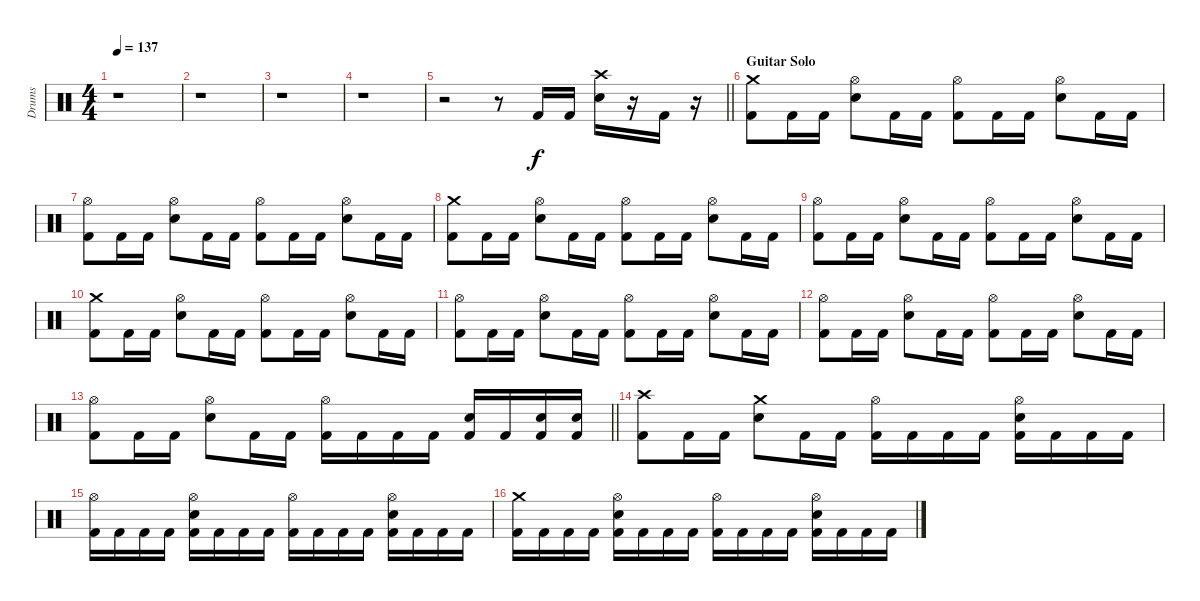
\track ("Drums" "Drums") {instrument percussion}
\staff {score}
\articulation defaults
\ts (4 4)
\tempo 137
\clef neutral
\ks c
r.1{dy f} |
r.1 |
r.1 |
r.1 |
\barLineRight lightlight
r.2 r.8 "Kick (hit) 2".16 "Kick (hit) 2".16 ("Crash high (hit)" "Electric Snare (hit)").16 r.16 "Kick (hit) 2".16 r.16 |
\section ("" "Guitar Solo")
("Crash medium (hit)" "Kick (hit) 2").8 "Kick (hit) 2".16 "Kick (hit) 2".16 ("Hi-Hat (open)" "Electric Snare (hit)").8 "Kick (hit) 2".16 "Kick (hit) 2".16 ("Hi-Hat (open)" "Kick (hit) 2").8 "Kick (hit) 2".16 "Kick (hit) 2".16 ("Hi-Hat (open)" "Electric Snare (hit)").8 "Kick (hit) 2".16 "Kick (hit) 2".16 |
("Hi-Hat (open)" "Kick (hit) 2").8 "Kick (hit) 2".16 "Kick (hit) 2".16 ("Hi-Hat (open)" "Electric Snare (hit)").8 "Kick (hit) 2".16 "Kick (hit) 2".16 ("Hi-Hat (open)" "Kick (hit) 2").8 "Kick (hit) 2".16 "Kick (hit) 2".16 ("Hi-Hat (open)" "Electric Snare (hit)").8 "Kick (hit) 2".16 "Kick (hit) 2".16 |
("Crash medium (hit)" "Kick (hit) 2").8 "Kick (hit) 2".16 "Kick (hit) 2".16 ("Hi-Hat (open)" "Electric Snare (hit)").8 "Kick (hit) 2".16 "Kick (hit) 2".16 ("Hi-Hat (open)" "Kick (hit) 2").8 "Kick (hit) 2".16 "Kick (hit) 2".16 ("Hi-Hat (open)" "Electric Snare (hit)").8 "Kick (hit) 2".16 "Kick (hit) 2".16 |
("Hi-Hat (open)" "Kick (hit) 2").8 "Kick (hit) 2".16 "Kick (hit) 2".16 ("Hi-Hat (open)" "Electric Snare (hit)").8 "Kick (hit) 2".16 "Kick (hit) 2".16 ("Hi-Hat (open)" "Kick (hit) 2").8 "Kick (hit) 2".16 "Kick (hit) 2".16 ("Hi-Hat (open)" "Electric Snare (hit)").8 "Kick (hit) 2".16 "Kick (hit) 2".16 |
("Crash medium (hit)" "Kick (hit) 2").8 "Kick (hit) 2".16 "Kick (hit) 2".16 ("Hi-Hat (open)" "Electric Snare (hit)").8 "Kick (hit) 2".16 "Kick (hit) 2".16 ("Hi-Hat (open)" "Kick (hit) 2").8 "Kick (hit) 2".16 "Kick (hit) 2".16 ("Hi-Hat (open)" "Electric Snare (hit)").8 "Kick (hit) 2".16 "Kick (hit) 2".16 |
("Hi-Hat (open)" "Kick (hit) 2").8 "Kick (hit) 2".16 "Kick (hit) 2".16 ("Hi-Hat (open)" "Electric Snare (hit)").8 "Kick (hit) 2".16 "Kick (hit) 2".16 ("Hi-Hat (open)" "Kick (hit) 2").8 "Kick (hit) 2".16 "Kick (hit) 2".16 ("Hi-Hat (open)" "Electric Snare (hit)").8 "Kick (hit) 2".16 "Kick (hit) 2".16 |
("Hi-Hat (open)" "Kick (hit) 2").8 "Kick (hit) 2".16 "Kick (hit) 2".16 ("Hi-Hat (open)" "Electric Snare (hit)").8 "Kick (hit) 2".16 "Kick (hit) 2".16 ("Hi-Hat (open)" "Kick (hit) 2").8 "Kick (hit) 2".16 "Kick (hit) 2".16 ("Hi-Hat (open)" "Electric Snare (hit)").8 "Kick (hit) 2".16 "Kick (hit) 2".16 |
\barLineRight lightlight
("Hi-Hat (open)" "Kick (hit) 2").8 "Kick (hit) 2".16 "Kick (hit) 2".16 ("Hi-Hat (open)" "Electric Snare (hit)").8 "Kick (hit) 2".16 "Kick (hit) 2".16 ("Hi-Hat (open)" "Kick (hit) 2").16 "Kick (hit) 2".16 "Kick (hit) 2".16 "Kick (hit) 2".16 ("Electric Snare (hit)" "Kick (hit) 2").16 "Kick (hit) 2".16 ("Electric Snare (hit)" "Kick (hit) 2").16 ("Electric Snare (hit)" "Kick (hit) 2").16 |
\section ("" "")
("Crash high (hit)" "Kick (hit) 2").8 "Kick (hit) 2".16 "Kick (hit) 2".16 ("Crash medium (hit)" "Electric Snare (hit)").8 "Kick (hit) 2".16 "Kick (hit) 2".16 ("Hi-Hat (open)" "Kick (hit) 2").16 "Kick (hit) 2".16 "Kick (hit) 2".16 "Kick (hit) 2".16 ("Hi-Hat (open)" "Electric Snare (hit)" "Kick (hit) 2").16 "Kick (hit) 2".16 "Kick (hit) 2".16 "Kick (hit) 2".16 |
("Hi-Hat (open)" "Kick (hit) 2").16 "Kick (hit) 2".16 "Kick (hit) 2".16 "Kick (hit) 2".16 ("Hi-Hat (open)" "Electric Snare (hit)" "Kick (hit) 2").16 "Kick (hit) 2".16 "Kick (hit) 2".16 "Kick (hit) 2".16 ("Hi-Hat (open)" "Kick (hit) 2").16 "Kick (hit) 2".16 "Kick (hit) 2".16 "Kick (hit) 2".16 ("Hi-Hat (open)" "Electric Snare (hit)" "Kick (hit) 2").16 "Kick (hit) 2".16 "Kick (hit) 2".16 "Kick (hit) 2".16 |
("Crash medium (hit)" "Kick (hit) 2").16 "Kick (hit) 2".16 "Kick (hit) 2".16 "Kick (hit) 2".16 ("Hi-Hat (open)" "Electric Snare (hit)" "Kick (hit) 2").16 "Kick (hit) 2".16 "Kick (hit) 2".16 "Kick (hit) 2".16 ("Hi-Hat (open)" "Kick (hit) 2").16 "Kick (hit) 2".16 "Kick (hit) 2".16 "Kick (hit) 2".16 ("Hi-Hat (open)" "Electric Snare (hit)" "Kick (hit) 2").16 "Kick (hit) 2".16 "Kick (hit) 2".16 "Kick (hit) 2".16
